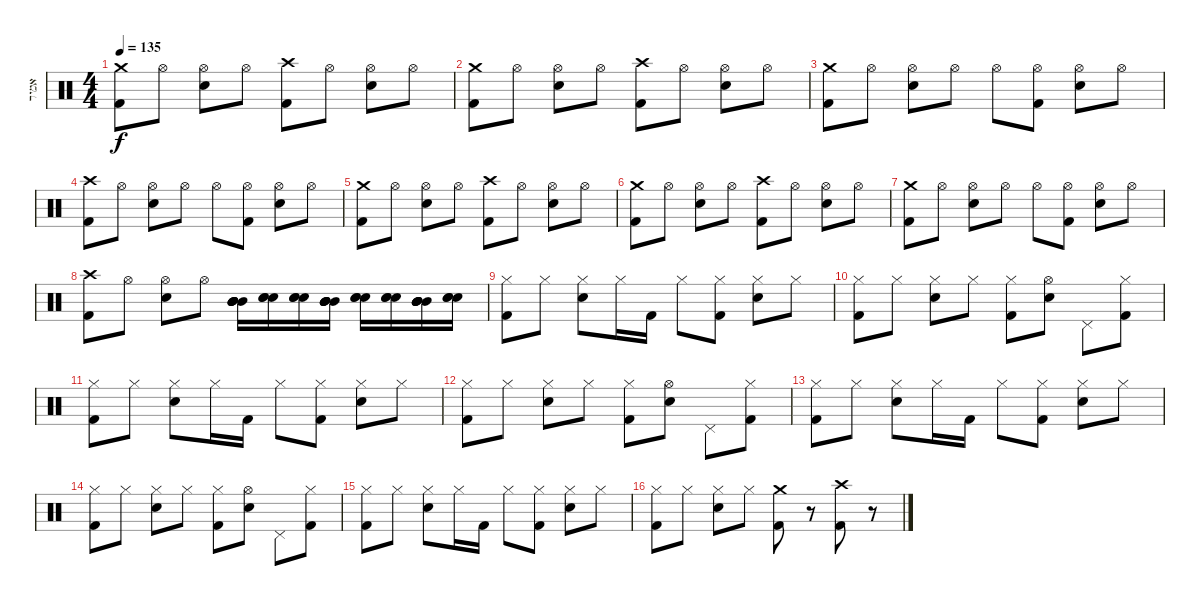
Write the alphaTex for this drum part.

\track ("אמיר" "אמיר") {instrument percussion}
\staff {score}
\articulation defaults
\ts (4 4)
\tempo 135
\clef neutral
\ks c
("Crash medium (hit)" "Kick (hit) 2").8{dy f} "Hi-Hat (open)".8 ("Hi-Hat (open)" "Snare (hit) 2").8 "Hi-Hat (open)".8 ("Crash high (hit)" "Kick (hit) 2").8 "Hi-Hat (open)".8 ("Hi-Hat (open)" "Snare (hit) 2").8 "Hi-Hat (open)".8 |
("Crash medium (hit)" "Kick (hit) 2").8 "Hi-Hat (open)".8 ("Hi-Hat (open)" "Snare (hit) 2").8 "Hi-Hat (open)".8 ("Crash high (hit)" "Kick (hit) 2").8 "Hi-Hat (open)".8 ("Hi-Hat (open)" "Snare (hit) 2").8 "Hi-Hat (open)".8 |
("Crash medium (hit)" "Kick (hit) 2").8 "Hi-Hat (open)".8 ("Hi-Hat (open)" "Snare (hit) 2").8 "Hi-Hat (open)".8 "Hi-Hat (open)".8 ("Hi-Hat (open)" "Kick (hit) 2").8 ("Hi-Hat (open)" "Snare (hit) 2").8 "Hi-Hat (open)".8 |
("Crash high (hit)" "Kick (hit) 2").8 "Hi-Hat (open)".8 ("Hi-Hat (open)" "Snare (hit) 2").8 "Hi-Hat (open)".8 "Hi-Hat (open)".8 ("Hi-Hat (open)" "Kick (hit) 2").8 ("Hi-Hat (open)" "Snare (hit) 2").8 "Hi-Hat (open)".8 |
("Crash medium (hit)" "Kick (hit) 2").8 "Hi-Hat (open)".8 ("Hi-Hat (open)" "Snare (hit) 2").8 "Hi-Hat (open)".8 ("Crash high (hit)" "Kick (hit) 2").8 "Hi-Hat (open)".8 ("Hi-Hat (open)" "Snare (hit) 2").8 "Hi-Hat (open)".8 |
("Crash medium (hit)" "Kick (hit) 2").8 "Hi-Hat (open)".8 ("Hi-Hat (open)" "Snare (hit) 2").8 "Hi-Hat (open)".8 ("Crash high (hit)" "Kick (hit) 2").8 "Hi-Hat (open)".8 ("Hi-Hat (open)" "Snare (hit) 2").8 "Hi-Hat (open)".8 |
("Crash medium (hit)" "Kick (hit) 2").8 "Hi-Hat (open)".8 ("Hi-Hat (open)" "Snare (hit) 2").8 "Hi-Hat (open)".8 "Hi-Hat (open)".8 ("Hi-Hat (open)" "Kick (hit) 2").8 ("Hi-Hat (open)" "Snare (hit) 2").8 "Hi-Hat (open)".8 |
("Crash high (hit)" "Kick (hit) 2").8 "Hi-Hat (open)".8 ("Hi-Hat (open)" "Snare (hit) 2").8 "Hi-Hat (open)".8 ("Mid Tom (hit)" "Mid Tom (hit)" "Mid Tom (hit)" "Mid Tom (hit)" "Mid Tom (hit)").16 ("Snare (hit) 2" "Snare (hit) 2" "Snare (hit) 2").16 ("Snare (hit) 2" "Snare (hit) 2" "Snare (hit) 2").16 ("Mid Tom (hit)" "Mid Tom (hit)" "Mid Tom (hit)" "Mid Tom (hit)" "Mid Tom (hit)").16 ("Snare (hit) 2" "Snare (hit) 2" "Snare (hit) 2").16 ("Snare (hit) 2" "Snare (hit) 2" "Snare (hit) 2").16 ("Mid Tom (hit)" "Mid Tom (hit)" "Mid Tom (hit)" "Mid Tom (hit)" "Mid Tom (hit)").16 ("Snare (hit) 2" "Snare (hit) 2" "Snare (hit) 2").16 |
("Hi-Hat (closed)" "Kick (hit) 2").8 "Hi-Hat (closed)".8 ("Hi-Hat (closed)" "Snare (hit) 2").8 "Hi-Hat (closed)".16 "Kick (hit) 2".16 "Hi-Hat (closed)".8 ("Hi-Hat (closed)" "Kick (hit) 2").8 ("Hi-Hat (closed)" "Snare (hit) 2").8 "Hi-Hat (closed)".8 |
("Hi-Hat (closed)" "Kick (hit) 2").8 "Hi-Hat (closed)".8 ("Hi-Hat (closed)" "Snare (hit) 2").8 "Hi-Hat (closed)".8 ("Hi-Hat (closed)" "Kick (hit) 2").8 ("Hi-Hat (open)" "Snare (hit) 2").8 "Pedal Hi-Hat (hit)".8 ("Hi-Hat (closed)" "Kick (hit) 2").8 |
("Hi-Hat (closed)" "Kick (hit) 2").8 "Hi-Hat (closed)".8 ("Hi-Hat (closed)" "Snare (hit) 2").8 "Hi-Hat (closed)".16 "Kick (hit) 2".16 "Hi-Hat (closed)".8 ("Hi-Hat (closed)" "Kick (hit) 2").8 ("Hi-Hat (closed)" "Snare (hit) 2").8 "Hi-Hat (closed)".8 |
("Hi-Hat (closed)" "Kick (hit) 2").8 "Hi-Hat (closed)".8 ("Hi-Hat (closed)" "Snare (hit) 2").8 "Hi-Hat (closed)".8 ("Hi-Hat (closed)" "Kick (hit) 2").8 ("Hi-Hat (open)" "Snare (hit) 2").8 "Pedal Hi-Hat (hit)".8 ("Hi-Hat (closed)" "Kick (hit) 2").8 |
("Hi-Hat (closed)" "Kick (hit) 2").8 "Hi-Hat (closed)".8 ("Hi-Hat (closed)" "Snare (hit) 2").8 "Hi-Hat (closed)".16 "Kick (hit) 2".16 "Hi-Hat (closed)".8 ("Hi-Hat (closed)" "Kick (hit) 2").8 ("Hi-Hat (closed)" "Snare (hit) 2").8 "Hi-Hat (closed)".8 |
("Hi-Hat (closed)" "Kick (hit) 2").8 "Hi-Hat (closed)".8 ("Hi-Hat (closed)" "Snare (hit) 2").8 "Hi-Hat (closed)".8 ("Hi-Hat (closed)" "Kick (hit) 2").8 ("Hi-Hat (open)" "Snare (hit) 2").8 "Pedal Hi-Hat (hit)".8 ("Hi-Hat (closed)" "Kick (hit) 2").8 |
("Hi-Hat (closed)" "Kick (hit) 2").8 "Hi-Hat (closed)".8 ("Hi-Hat (closed)" "Snare (hit) 2").8 "Hi-Hat (closed)".16 "Kick (hit) 2".16 "Hi-Hat (closed)".8 ("Hi-Hat (closed)" "Kick (hit) 2").8 ("Hi-Hat (closed)" "Snare (hit) 2").8 "Hi-Hat (closed)".8 |
("Hi-Hat (closed)" "Kick (hit) 2").8 "Hi-Hat (closed)".8 ("Hi-Hat (closed)" "Snare (hit) 2").8 "Hi-Hat (closed)".8 ("Crash medium (hit)" "Kick (hit) 2").8 r.8 ("Crash high (hit)" "Kick (hit) 2").8 r.8
